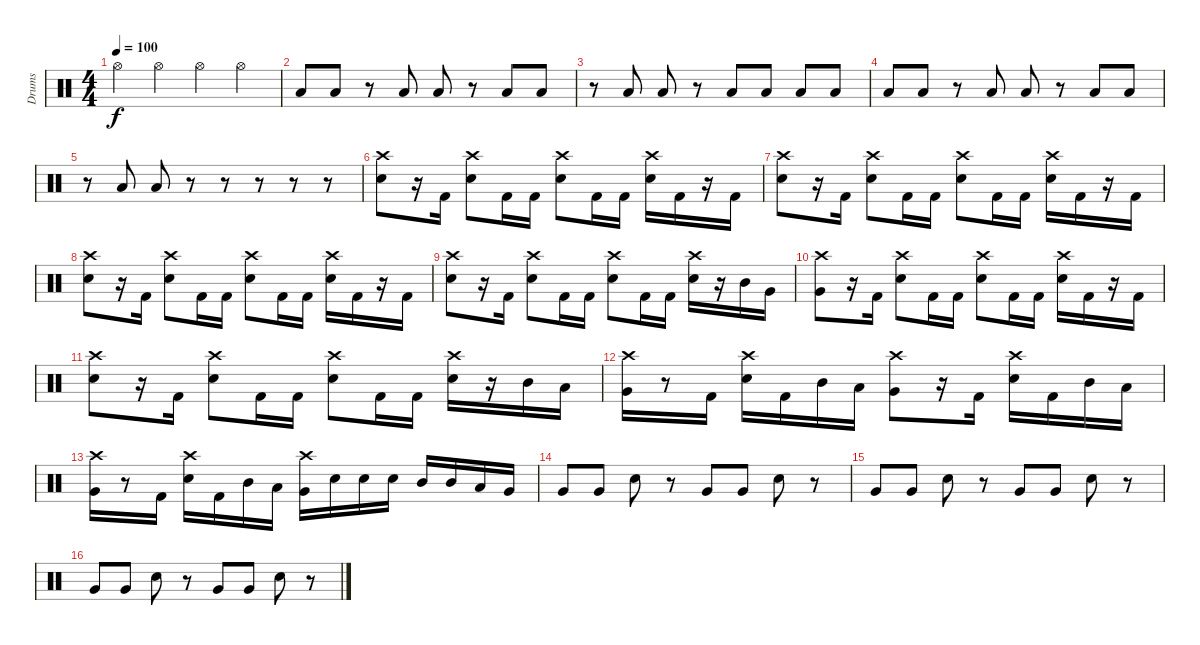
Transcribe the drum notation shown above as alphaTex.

\track ("Drums" "Drums") {instrument percussion}
\staff {score}
\articulation defaults
\ts (4 4)
\tempo 100
\clef neutral
\ks c "Hi-Hat (open)".4{dy f} "Hi-Hat (open)".4 "Hi-Hat (open)".4 "Hi-Hat (open)".4
|
"Low Floor Tom (hit)".8 "Low Floor Tom (hit)".8 r.8 "Low Floor Tom (hit)".8 "Low Floor Tom (hit)".8 r.8 "Low Floor Tom (hit)".8 "Low Floor Tom (hit)".8 |
r.8 "Low Floor Tom (hit)".8 "Low Floor Tom (hit)".8 r.8 "Low Floor Tom (hit)".8 "Low Floor Tom (hit)".8 "Low Floor Tom (hit)".8 "Low Floor Tom (hit)".8 |
"Low Floor Tom (hit)".8 "Low Floor Tom (hit)".8 r.8 "Low Floor Tom (hit)".8 "Low Floor Tom (hit)".8 r.8 "Low Floor Tom (hit)".8 "Low Floor Tom (hit)".8 |
r.8 "Low Floor Tom (hit)".8 "Low Floor Tom (hit)".8 r.8 r.8 r.8 r.8 r.8 |
("Crash high (hit)" "Electric Snare (hit)").8 r.16 "Kick (hit) 2".16 ("Crash high (hit)" "Electric Snare (hit)").8 "Kick (hit) 2".16 "Kick (hit) 2".16 ("Crash high (hit)" "Electric Snare (hit)").8 "Kick (hit) 2".16 "Kick (hit) 2".16 ("Crash high (hit)" "Electric Snare (hit)").16 "Kick (hit) 2".16 r.16 "Kick (hit) 2".16 |
("Crash high (hit)" "Electric Snare (hit)").8 r.16 "Kick (hit) 2".16 ("Crash high (hit)" "Electric Snare (hit)").8 "Kick (hit) 2".16 "Kick (hit) 2".16 ("Crash high (hit)" "Electric Snare (hit)").8 "Kick (hit) 2".16 "Kick (hit) 2".16 ("Crash high (hit)" "Electric Snare (hit)").16 "Kick (hit) 2".16 r.16 "Kick (hit) 2".16 |
("Crash high (hit)" "Electric Snare (hit)").8 r.16 "Kick (hit) 2".16 ("Crash high (hit)" "Electric Snare (hit)").8 "Kick (hit) 2".16 "Kick (hit) 2".16 ("Crash high (hit)" "Electric Snare (hit)").8 "Kick (hit) 2".16 "Kick (hit) 2".16 ("Crash high (hit)" "Electric Snare (hit)").16 "Kick (hit) 2".16 r.16 "Kick (hit) 2".16 |
("Crash high (hit)" "Electric Snare (hit)").8 r.16 "Kick (hit) 2".16 ("Crash high (hit)" "Electric Snare (hit)").8 "Kick (hit) 2".16 "Kick (hit) 2".16 ("Crash high (hit)" "Electric Snare (hit)").8 "Kick (hit) 2".16 "Kick (hit) 2".16 ("Crash high (hit)" "Electric Snare (hit)").16 r.16 "Mid Tom (hit)".16 "Very Low Tom (hit)".16 |
("Crash high (hit)" "Very Low Tom (hit)").8 r.16 "Kick (hit) 2".16 ("Crash high (hit)" "Electric Snare (hit)").8 "Kick (hit) 2".16 "Kick (hit) 2".16 ("Crash high (hit)" "Electric Snare (hit)").8 "Kick (hit) 2".16 "Kick (hit) 2".16 ("Crash high (hit)" "Electric Snare (hit)").16 "Kick (hit) 2".16 r.16 "Kick (hit) 2".16 |
("Crash high (hit)" "Electric Snare (hit)").8 r.16 "Kick (hit) 2".16 ("Crash high (hit)" "Electric Snare (hit)").8 "Kick (hit) 2".16 "Kick (hit) 2".16 ("Crash high (hit)" "Electric Snare (hit)").8 "Kick (hit) 2".16 "Kick (hit) 2".16 ("Crash high (hit)" "Electric Snare (hit)").16 r.16 "Mid Tom (hit)".16 "Low Tom (hit)".16 |
("Crash high (hit)" "Very Low Tom (hit)").16 r.8 "Kick (hit) 2".16 ("Crash high (hit)" "Electric Snare (hit)").16 "Kick (hit) 2".16 "Mid Tom (hit)".16 "Low Tom (hit)".16 ("Crash high (hit)" "Very Low Tom (hit)").8 r.16 "Kick (hit) 2".16 ("Crash high (hit)" "Electric Snare (hit)").16 "Kick (hit) 2".16 "Mid Tom (hit)".16 "Low Tom (hit)".16 |
("Crash high (hit)" "Very Low Tom (hit)").16 r.8 "Kick (hit) 2".16 ("Crash high (hit)" "Electric Snare (hit)").16 "Kick (hit) 2".16 "Mid Tom (hit)".16 "Low Tom (hit)".16 ("Crash high (hit)" "Very Low Tom (hit)").16 "Electric Snare (hit)".16 "Electric Snare (hit)".16 "Electric Snare (hit)".16 "Mid Tom (hit)".16 "Mid Tom (hit)".16 "Low Tom (hit)".16 "Very Low Tom (hit)".16 |
"Very Low Tom (hit)".8 "Very Low Tom (hit)".8 "Electric Snare (hit)".8 r.8 "Very Low Tom (hit)".8 "Very Low Tom (hit)".8 "Electric Snare (hit)".8 r.8 |
"Very Low Tom (hit)".8 "Very Low Tom (hit)".8 "Electric Snare (hit)".8 r.8 "Very Low Tom (hit)".8 "Very Low Tom (hit)".8 "Electric Snare (hit)".8 r.8 |
"Very Low Tom (hit)".8 "Very Low Tom (hit)".8 "Electric Snare (hit)".8 r.8 "Very Low Tom (hit)".8 "Very Low Tom (hit)".8 "Electric Snare (hit)".8 r.8
